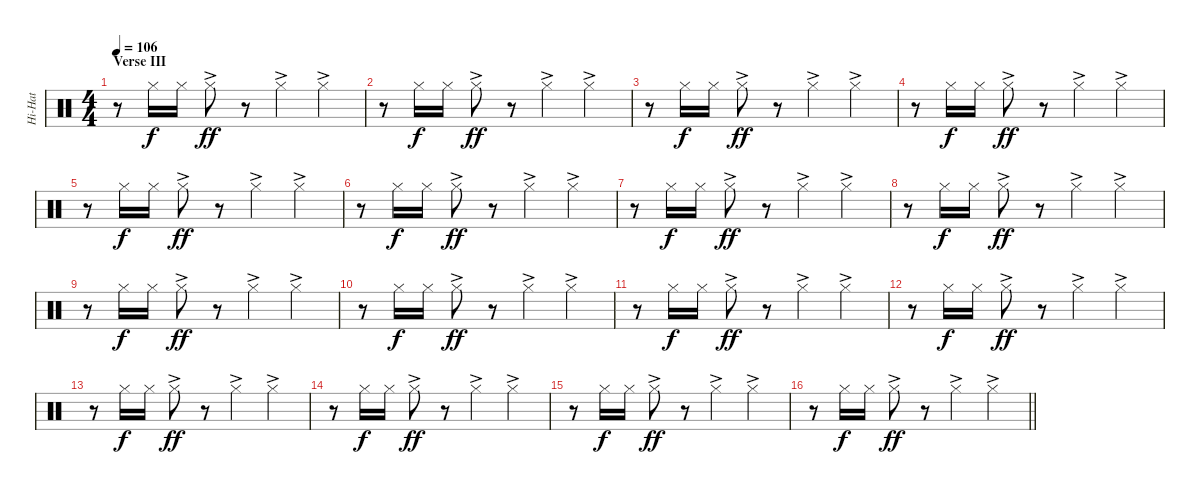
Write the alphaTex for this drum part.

\track ("Hi-Hat" "Hi-Hat") {instrument percussion}
\staff {score}
\articulation defaults
\ts (4 4)
\section ("" "Verse III")
\tempo 106
\clef neutral
\ks c
r.8{dy ff} "Hi-Hat (closed)".16{dy f} "Hi-Hat (closed)".16 "Hi-Hat (closed)"{ac}.8{dy ff} r.8 "Hi-Hat (closed)"{ac}.4 "Hi-Hat (closed)"{ac}.4 |
r.8 "Hi-Hat (closed)".16{dy f} "Hi-Hat (closed)".16 "Hi-Hat (closed)"{ac}.8{dy ff} r.8 "Hi-Hat (closed)"{ac}.4 "Hi-Hat (closed)"{ac}.4 |
r.8 "Hi-Hat (closed)".16{dy f} "Hi-Hat (closed)".16 "Hi-Hat (closed)"{ac}.8{dy ff} r.8 "Hi-Hat (closed)"{ac}.4 "Hi-Hat (closed)"{ac}.4 |
r.8 "Hi-Hat (closed)".16{dy f} "Hi-Hat (closed)".16 "Hi-Hat (closed)"{ac}.8{dy ff} r.8 "Hi-Hat (closed)"{ac}.4 "Hi-Hat (closed)"{ac}.4 |
r.8 "Hi-Hat (closed)".16{dy f} "Hi-Hat (closed)".16 "Hi-Hat (closed)"{ac}.8{dy ff} r.8 "Hi-Hat (closed)"{ac}.4 "Hi-Hat (closed)"{ac}.4 |
r.8 "Hi-Hat (closed)".16{dy f} "Hi-Hat (closed)".16 "Hi-Hat (closed)"{ac}.8{dy ff} r.8 "Hi-Hat (closed)"{ac}.4 "Hi-Hat (closed)"{ac}.4 |
r.8 "Hi-Hat (closed)".16{dy f} "Hi-Hat (closed)".16 "Hi-Hat (closed)"{ac}.8{dy ff} r.8 "Hi-Hat (closed)"{ac}.4 "Hi-Hat (closed)"{ac}.4 |
r.8 "Hi-Hat (closed)".16{dy f} "Hi-Hat (closed)".16 "Hi-Hat (closed)"{ac}.8{dy ff} r.8 "Hi-Hat (closed)"{ac}.4 "Hi-Hat (closed)"{ac}.4 |
r.8 "Hi-Hat (closed)".16{dy f} "Hi-Hat (closed)".16 "Hi-Hat (closed)"{ac}.8{dy ff} r.8 "Hi-Hat (closed)"{ac}.4 "Hi-Hat (closed)"{ac}.4 |
r.8 "Hi-Hat (closed)".16{dy f} "Hi-Hat (closed)".16 "Hi-Hat (closed)"{ac}.8{dy ff} r.8 "Hi-Hat (closed)"{ac}.4 "Hi-Hat (closed)"{ac}.4 |
r.8 "Hi-Hat (closed)".16{dy f} "Hi-Hat (closed)".16 "Hi-Hat (closed)"{ac}.8{dy ff} r.8 "Hi-Hat (closed)"{ac}.4 "Hi-Hat (closed)"{ac}.4 |
r.8 "Hi-Hat (closed)".16{dy f} "Hi-Hat (closed)".16 "Hi-Hat (closed)"{ac}.8{dy ff} r.8 "Hi-Hat (closed)"{ac}.4 "Hi-Hat (closed)"{ac}.4 |
r.8 "Hi-Hat (closed)".16{dy f} "Hi-Hat (closed)".16 "Hi-Hat (closed)"{ac}.8{dy ff} r.8 "Hi-Hat (closed)"{ac}.4 "Hi-Hat (closed)"{ac}.4 |
r.8 "Hi-Hat (closed)".16{dy f} "Hi-Hat (closed)".16 "Hi-Hat (closed)"{ac}.8{dy ff} r.8 "Hi-Hat (closed)"{ac}.4 "Hi-Hat (closed)"{ac}.4 |
r.8 "Hi-Hat (closed)".16{dy f} "Hi-Hat (closed)".16 "Hi-Hat (closed)"{ac}.8{dy ff} r.8 "Hi-Hat (closed)"{ac}.4 "Hi-Hat (closed)"{ac}.4 |
\barLineRight lightlight
r.8 "Hi-Hat (closed)".16{dy f} "Hi-Hat (closed)".16 "Hi-Hat (closed)"{ac}.8{dy ff} r.8 "Hi-Hat (closed)"{ac}.4 "Hi-Hat (closed)"{ac}.4
